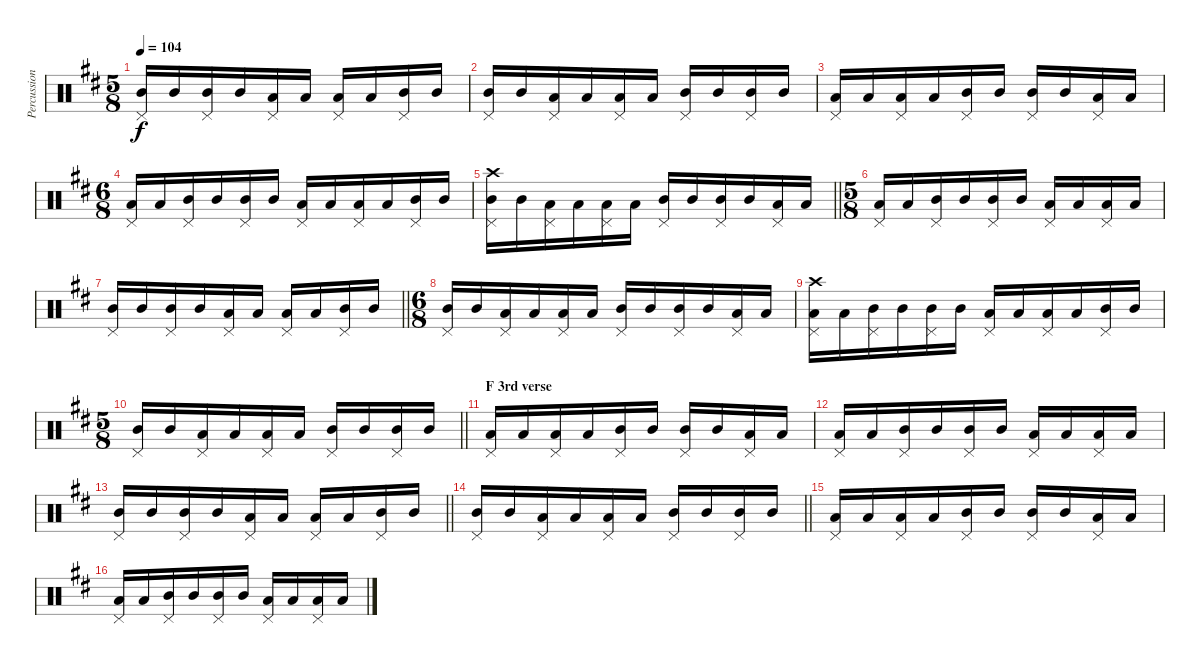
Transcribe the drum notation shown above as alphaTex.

\track ("Percussion" "Percussion") {instrument percussion}
\staff {score}
\articulation defaults
\ts (5 8)
\tempo 104
\clef neutral
\ks d
("Pedal Hi-Hat (hit)" "Mid Tom (hit)").16{dy f} "Mid Tom (hit)".16 ("Pedal Hi-Hat (hit)" "Mid Tom (hit)").16 "Mid Tom (hit)".16 ("Pedal Hi-Hat (hit)" "Low Tom (hit)").16 "Low Tom (hit)".16 ("Pedal Hi-Hat (hit)" "Low Tom (hit)").16 "Low Tom (hit)".16 ("Pedal Hi-Hat (hit)" "Mid Tom (hit)").16 "Mid Tom (hit)".16 |
("Pedal Hi-Hat (hit)" "Mid Tom (hit)").16 "Mid Tom (hit)".16 ("Pedal Hi-Hat (hit)" "Low Tom (hit)").16 "Low Tom (hit)".16 ("Pedal Hi-Hat (hit)" "Low Tom (hit)").16 "Low Tom (hit)".16 ("Pedal Hi-Hat (hit)" "Mid Tom (hit)").16 "Mid Tom (hit)".16 ("Pedal Hi-Hat (hit)" "Mid Tom (hit)").16 "Mid Tom (hit)".16 |
("Pedal Hi-Hat (hit)" "Low Tom (hit)").16 "Low Tom (hit)".16 ("Pedal Hi-Hat (hit)" "Low Tom (hit)").16 "Low Tom (hit)".16 ("Pedal Hi-Hat (hit)" "Mid Tom (hit)").16 "Mid Tom (hit)".16 ("Pedal Hi-Hat (hit)" "Mid Tom (hit)").16 "Mid Tom (hit)".16 ("Pedal Hi-Hat (hit)" "Low Tom (hit)").16 "Low Tom (hit)".16 |
\ts (6 8)
("Pedal Hi-Hat (hit)" "Low Tom (hit)").16 "Low Tom (hit)".16 ("Pedal Hi-Hat (hit)" "Mid Tom (hit)").16 "Mid Tom (hit)".16 ("Pedal Hi-Hat (hit)" "Mid Tom (hit)").16 "Mid Tom (hit)".16 ("Pedal Hi-Hat (hit)" "Low Tom (hit)").16 "Low Tom (hit)".16 ("Pedal Hi-Hat (hit)" "Low Tom (hit)").16 "Low Tom (hit)".16 ("Pedal Hi-Hat (hit)" "Mid Tom (hit)").16 "Mid Tom (hit)".16 |
\barLineRight lightlight
("Pedal Hi-Hat (hit)" "Crash high (hit)" "Mid Tom (hit)").16 "Mid Tom (hit)".16 ("Pedal Hi-Hat (hit)" "Low Tom (hit)").16 "Low Tom (hit)".16 ("Pedal Hi-Hat (hit)" "Low Tom (hit)").16 "Low Tom (hit)".16 ("Pedal Hi-Hat (hit)" "Mid Tom (hit)").16 "Mid Tom (hit)".16 ("Pedal Hi-Hat (hit)" "Mid Tom (hit)").16 "Mid Tom (hit)".16 ("Pedal Hi-Hat (hit)" "Low Tom (hit)").16 "Low Tom (hit)".16 |
\ts (5 8)
("Pedal Hi-Hat (hit)" "Low Tom (hit)").16 "Low Tom (hit)".16 ("Pedal Hi-Hat (hit)" "Mid Tom (hit)").16 "Mid Tom (hit)".16 ("Pedal Hi-Hat (hit)" "Mid Tom (hit)").16 "Mid Tom (hit)".16 ("Pedal Hi-Hat (hit)" "Low Tom (hit)").16 "Low Tom (hit)".16 ("Pedal Hi-Hat (hit)" "Low Tom (hit)").16 "Low Tom (hit)".16 |
\barLineRight lightlight
("Pedal Hi-Hat (hit)" "Mid Tom (hit)").16 "Mid Tom (hit)".16 ("Pedal Hi-Hat (hit)" "Mid Tom (hit)").16 "Mid Tom (hit)".16 ("Pedal Hi-Hat (hit)" "Low Tom (hit)").16 "Low Tom (hit)".16 ("Pedal Hi-Hat (hit)" "Low Tom (hit)").16 "Low Tom (hit)".16 ("Pedal Hi-Hat (hit)" "Mid Tom (hit)").16 "Mid Tom (hit)".16 |
\ts (6 8)
("Pedal Hi-Hat (hit)" "Mid Tom (hit)").16 "Mid Tom (hit)".16 ("Pedal Hi-Hat (hit)" "Low Tom (hit)").16 "Low Tom (hit)".16 ("Pedal Hi-Hat (hit)" "Low Tom (hit)").16 "Low Tom (hit)".16 ("Pedal Hi-Hat (hit)" "Mid Tom (hit)").16 "Mid Tom (hit)".16 ("Pedal Hi-Hat (hit)" "Mid Tom (hit)").16 "Mid Tom (hit)".16 ("Pedal Hi-Hat (hit)" "Low Tom (hit)").16 "Low Tom (hit)".16 |
("Pedal Hi-Hat (hit)" "Crash high (hit)" "Low Tom (hit)").16 "Low Tom (hit)".16 ("Pedal Hi-Hat (hit)" "Mid Tom (hit)").16 "Mid Tom (hit)".16 ("Pedal Hi-Hat (hit)" "Mid Tom (hit)").16 "Mid Tom (hit)".16 ("Pedal Hi-Hat (hit)" "Low Tom (hit)").16 "Low Tom (hit)".16 ("Pedal Hi-Hat (hit)" "Low Tom (hit)").16 "Low Tom (hit)".16 ("Pedal Hi-Hat (hit)" "Mid Tom (hit)").16 "Mid Tom (hit)".16 |
\ts (5 8)
\barLineRight lightlight
("Pedal Hi-Hat (hit)" "Mid Tom (hit)").16 "Mid Tom (hit)".16 ("Pedal Hi-Hat (hit)" "Low Tom (hit)").16 "Low Tom (hit)".16 ("Pedal Hi-Hat (hit)" "Low Tom (hit)").16 "Low Tom (hit)".16 ("Pedal Hi-Hat (hit)" "Mid Tom (hit)").16 "Mid Tom (hit)".16 ("Pedal Hi-Hat (hit)" "Mid Tom (hit)").16 "Mid Tom (hit)".16 |
\section ("" "F 3rd verse")
("Pedal Hi-Hat (hit)" "Low Tom (hit)").16 "Low Tom (hit)".16 ("Pedal Hi-Hat (hit)" "Low Tom (hit)").16 "Low Tom (hit)".16 ("Pedal Hi-Hat (hit)" "Mid Tom (hit)").16 "Mid Tom (hit)".16 ("Pedal Hi-Hat (hit)" "Mid Tom (hit)").16 "Mid Tom (hit)".16 ("Pedal Hi-Hat (hit)" "Low Tom (hit)").16 "Low Tom (hit)".16 |
("Pedal Hi-Hat (hit)" "Low Tom (hit)").16 "Low Tom (hit)".16 ("Pedal Hi-Hat (hit)" "Mid Tom (hit)").16 "Mid Tom (hit)".16 ("Pedal Hi-Hat (hit)" "Mid Tom (hit)").16 "Mid Tom (hit)".16 ("Pedal Hi-Hat (hit)" "Low Tom (hit)").16 "Low Tom (hit)".16 ("Pedal Hi-Hat (hit)" "Low Tom (hit)").16 "Low Tom (hit)".16 |
\barLineRight lightlight
("Pedal Hi-Hat (hit)" "Mid Tom (hit)").16 "Mid Tom (hit)".16 ("Pedal Hi-Hat (hit)" "Mid Tom (hit)").16 "Mid Tom (hit)".16 ("Pedal Hi-Hat (hit)" "Low Tom (hit)").16 "Low Tom (hit)".16 ("Pedal Hi-Hat (hit)" "Low Tom (hit)").16 "Low Tom (hit)".16 ("Pedal Hi-Hat (hit)" "Mid Tom (hit)").16 "Mid Tom (hit)".16 |
\barLineRight lightlight
("Pedal Hi-Hat (hit)" "Mid Tom (hit)").16 "Mid Tom (hit)".16 ("Pedal Hi-Hat (hit)" "Low Tom (hit)").16 "Low Tom (hit)".16 ("Pedal Hi-Hat (hit)" "Low Tom (hit)").16 "Low Tom (hit)".16 ("Pedal Hi-Hat (hit)" "Mid Tom (hit)").16 "Mid Tom (hit)".16 ("Pedal Hi-Hat (hit)" "Mid Tom (hit)").16 "Mid Tom (hit)".16 |
("Pedal Hi-Hat (hit)" "Low Tom (hit)").16 "Low Tom (hit)".16 ("Pedal Hi-Hat (hit)" "Low Tom (hit)").16 "Low Tom (hit)".16 ("Pedal Hi-Hat (hit)" "Mid Tom (hit)").16 "Mid Tom (hit)".16 ("Pedal Hi-Hat (hit)" "Mid Tom (hit)").16 "Mid Tom (hit)".16 ("Pedal Hi-Hat (hit)" "Low Tom (hit)").16 "Low Tom (hit)".16 |
("Pedal Hi-Hat (hit)" "Low Tom (hit)").16 "Low Tom (hit)".16 ("Pedal Hi-Hat (hit)" "Mid Tom (hit)").16 "Mid Tom (hit)".16 ("Pedal Hi-Hat (hit)" "Mid Tom (hit)").16 "Mid Tom (hit)".16 ("Pedal Hi-Hat (hit)" "Low Tom (hit)").16 "Low Tom (hit)".16 ("Pedal Hi-Hat (hit)" "Low Tom (hit)").16 "Low Tom (hit)".16
